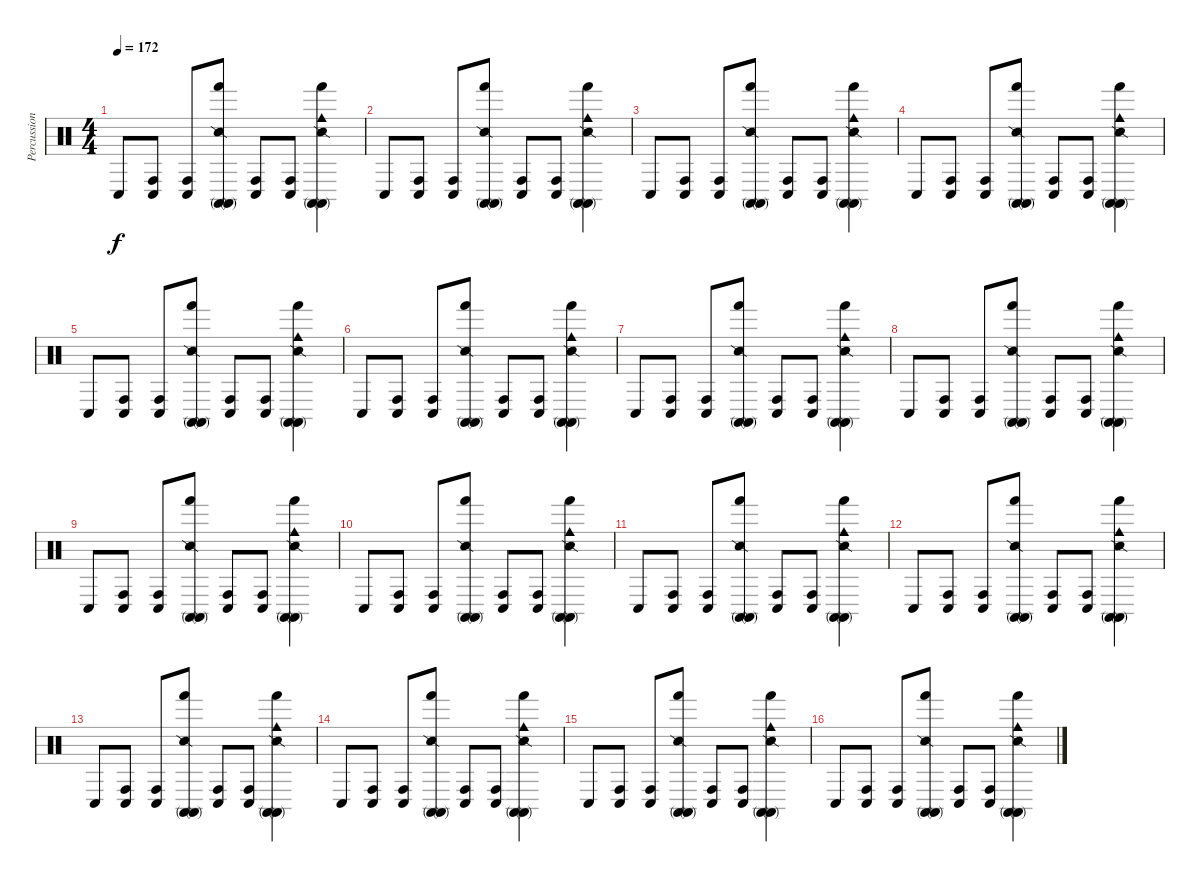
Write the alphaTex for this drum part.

\track ("Percussion" "Percussion") {instrument percussion}
\staff {score}
\articulation defaults
\ts (4 4)
\tempo 172
\clef neutral
\ks c "Conga low (hit)".8{dy f}
("Conga high (hit)" "Conga low (hit)").8 ("Conga high (hit)" "Conga low (hit)").8 ("Snare (side stick) 2" "Hand (hit)" "Conga high (mute)" "Conga high (mute)").8 ("Conga high (hit)" "Conga low (hit)").8 ("Conga high (hit)" "Conga low (hit)").8 ("Snare (side stick) 2" "Hand (hit)" "Cowbell medium (hit)" "Conga high (mute)" "Conga high (mute)").4 |
"Conga low (hit)".8 ("Conga high (hit)" "Conga low (hit)").8 ("Conga high (hit)" "Conga low (hit)").8 ("Snare (side stick) 2" "Hand (hit)" "Conga high (mute)" "Conga high (mute)").8 ("Conga high (hit)" "Conga low (hit)").8 ("Conga high (hit)" "Conga low (hit)").8 ("Snare (side stick) 2" "Hand (hit)" "Cowbell medium (hit)" "Conga high (mute)" "Conga high (mute)").4 |
"Conga low (hit)".8 ("Conga high (hit)" "Conga low (hit)").8 ("Conga high (hit)" "Conga low (hit)").8 ("Snare (side stick) 2" "Hand (hit)" "Conga high (mute)" "Conga high (mute)").8 ("Conga high (hit)" "Conga low (hit)").8 ("Conga high (hit)" "Conga low (hit)").8 ("Snare (side stick) 2" "Hand (hit)" "Cowbell medium (hit)" "Conga high (mute)" "Conga high (mute)").4 |
"Conga low (hit)".8 ("Conga high (hit)" "Conga low (hit)").8 ("Conga high (hit)" "Conga low (hit)").8 ("Snare (side stick) 2" "Hand (hit)" "Conga high (mute)" "Conga high (mute)").8 ("Conga high (hit)" "Conga low (hit)").8 ("Conga high (hit)" "Conga low (hit)").8 ("Snare (side stick) 2" "Hand (hit)" "Cowbell medium (hit)" "Conga high (mute)" "Conga high (mute)").4 |
"Conga low (hit)".8 ("Conga high (hit)" "Conga low (hit)").8 ("Conga high (hit)" "Conga low (hit)").8 ("Snare (side stick) 2" "Hand (hit)" "Conga high (mute)" "Conga high (mute)").8 ("Conga high (hit)" "Conga low (hit)").8 ("Conga high (hit)" "Conga low (hit)").8 ("Snare (side stick) 2" "Hand (hit)" "Cowbell medium (hit)" "Conga high (mute)" "Conga high (mute)").4 |
"Conga low (hit)".8 ("Conga high (hit)" "Conga low (hit)").8 ("Conga high (hit)" "Conga low (hit)").8 ("Snare (side stick) 2" "Hand (hit)" "Conga high (mute)" "Conga high (mute)").8 ("Conga high (hit)" "Conga low (hit)").8 ("Conga high (hit)" "Conga low (hit)").8 ("Snare (side stick) 2" "Hand (hit)" "Cowbell medium (hit)" "Conga high (mute)" "Conga high (mute)").4 |
"Conga low (hit)".8 ("Conga high (hit)" "Conga low (hit)").8 ("Conga high (hit)" "Conga low (hit)").8 ("Snare (side stick) 2" "Hand (hit)" "Conga high (mute)" "Conga high (mute)").8 ("Conga high (hit)" "Conga low (hit)").8 ("Conga high (hit)" "Conga low (hit)").8 ("Snare (side stick) 2" "Hand (hit)" "Cowbell medium (hit)" "Conga high (mute)" "Conga high (mute)").4 |
"Conga low (hit)".8 ("Conga high (hit)" "Conga low (hit)").8 ("Conga high (hit)" "Conga low (hit)").8 ("Snare (side stick) 2" "Hand (hit)" "Conga high (mute)" "Conga high (mute)").8 ("Conga high (hit)" "Conga low (hit)").8 ("Conga high (hit)" "Conga low (hit)").8 ("Snare (side stick) 2" "Hand (hit)" "Cowbell medium (hit)" "Conga high (mute)" "Conga high (mute)").4 |
"Conga low (hit)".8 ("Conga high (hit)" "Conga low (hit)").8 ("Conga high (hit)" "Conga low (hit)").8 ("Snare (side stick) 2" "Hand (hit)" "Conga high (mute)" "Conga high (mute)").8 ("Conga high (hit)" "Conga low (hit)").8 ("Conga high (hit)" "Conga low (hit)").8 ("Snare (side stick) 2" "Hand (hit)" "Cowbell medium (hit)" "Conga high (mute)" "Conga high (mute)").4 |
"Conga low (hit)".8 ("Conga high (hit)" "Conga low (hit)").8 ("Conga high (hit)" "Conga low (hit)").8 ("Snare (side stick) 2" "Hand (hit)" "Conga high (mute)" "Conga high (mute)").8 ("Conga high (hit)" "Conga low (hit)").8 ("Conga high (hit)" "Conga low (hit)").8 ("Snare (side stick) 2" "Hand (hit)" "Cowbell medium (hit)" "Conga high (mute)" "Conga high (mute)").4 |
"Conga low (hit)".8 ("Conga high (hit)" "Conga low (hit)").8 ("Conga high (hit)" "Conga low (hit)").8 ("Snare (side stick) 2" "Hand (hit)" "Conga high (mute)" "Conga high (mute)").8 ("Conga high (hit)" "Conga low (hit)").8 ("Conga high (hit)" "Conga low (hit)").8 ("Snare (side stick) 2" "Hand (hit)" "Cowbell medium (hit)" "Conga high (mute)" "Conga high (mute)").4 |
"Conga low (hit)".8 ("Conga high (hit)" "Conga low (hit)").8 ("Conga high (hit)" "Conga low (hit)").8 ("Snare (side stick) 2" "Hand (hit)" "Conga high (mute)" "Conga high (mute)").8 ("Conga high (hit)" "Conga low (hit)").8 ("Conga high (hit)" "Conga low (hit)").8 ("Snare (side stick) 2" "Hand (hit)" "Cowbell medium (hit)" "Conga high (mute)" "Conga high (mute)").4 |
"Conga low (hit)".8 ("Conga high (hit)" "Conga low (hit)").8 ("Conga high (hit)" "Conga low (hit)").8 ("Snare (side stick) 2" "Hand (hit)" "Conga high (mute)" "Conga high (mute)").8 ("Conga high (hit)" "Conga low (hit)").8 ("Conga high (hit)" "Conga low (hit)").8 ("Snare (side stick) 2" "Hand (hit)" "Cowbell medium (hit)" "Conga high (mute)" "Conga high (mute)").4 |
"Conga low (hit)".8 ("Conga high (hit)" "Conga low (hit)").8 ("Conga high (hit)" "Conga low (hit)").8 ("Snare (side stick) 2" "Hand (hit)" "Conga high (mute)" "Conga high (mute)").8 ("Conga high (hit)" "Conga low (hit)").8 ("Conga high (hit)" "Conga low (hit)").8 ("Snare (side stick) 2" "Hand (hit)" "Cowbell medium (hit)" "Conga high (mute)" "Conga high (mute)").4 |
"Conga low (hit)".8 ("Conga high (hit)" "Conga low (hit)").8 ("Conga high (hit)" "Conga low (hit)").8 ("Snare (side stick) 2" "Hand (hit)" "Conga high (mute)" "Conga high (mute)").8 ("Conga high (hit)" "Conga low (hit)").8 ("Conga high (hit)" "Conga low (hit)").8 ("Snare (side stick) 2" "Hand (hit)" "Cowbell medium (hit)" "Conga high (mute)" "Conga high (mute)").4 |
"Conga low (hit)".8 ("Conga high (hit)" "Conga low (hit)").8 ("Conga high (hit)" "Conga low (hit)").8 ("Snare (side stick) 2" "Hand (hit)" "Conga high (mute)" "Conga high (mute)").8 ("Conga high (hit)" "Conga low (hit)").8 ("Conga high (hit)" "Conga low (hit)").8 ("Snare (side stick) 2" "Hand (hit)" "Cowbell medium (hit)" "Conga high (mute)" "Conga high (mute)").4
